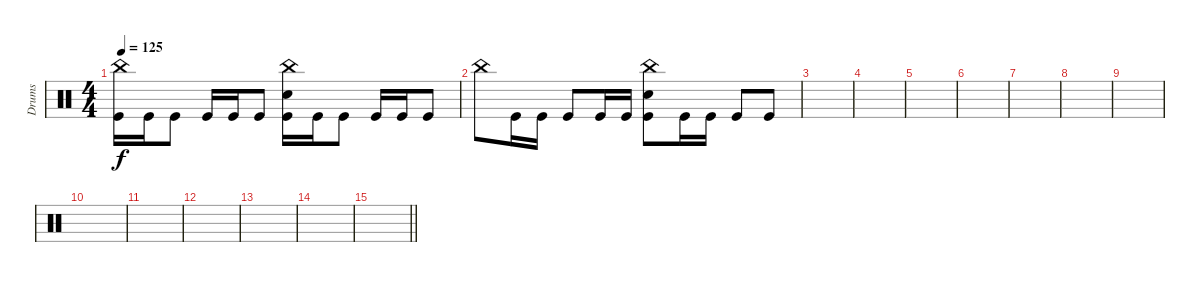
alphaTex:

\track ("Drums" "Drums") {instrument percussion}
\staff
\articulation defaults
\ts (4 4)
\tempo 125
\clef neutral
\ks c
("China (hit)" "Kick (hit)").16{dy f} "Kick (hit)".16 "Kick (hit)".8 "Kick (hit)".16 "Kick (hit)".16 "Kick (hit)".8 ("China (hit)" "Electric Snare (hit)" "Kick (hit)").16 "Kick (hit)".16 "Kick (hit)".8 "Kick (hit)".16 "Kick (hit)".16 "Kick (hit)".8 |
"China (hit)".8 "Kick (hit)".16 "Kick (hit)".16 "Kick (hit)".8 "Kick (hit)".16 "Kick (hit)".16 ("China (hit)" "Electric Snare (hit)" "Kick (hit)").8 "Kick (hit)".16 "Kick (hit)".16 "Kick (hit)".8 "Kick (hit)".8 |
|
|
|
|
|
|
|
|
|
|
|
|
\barLineRight lightlight
